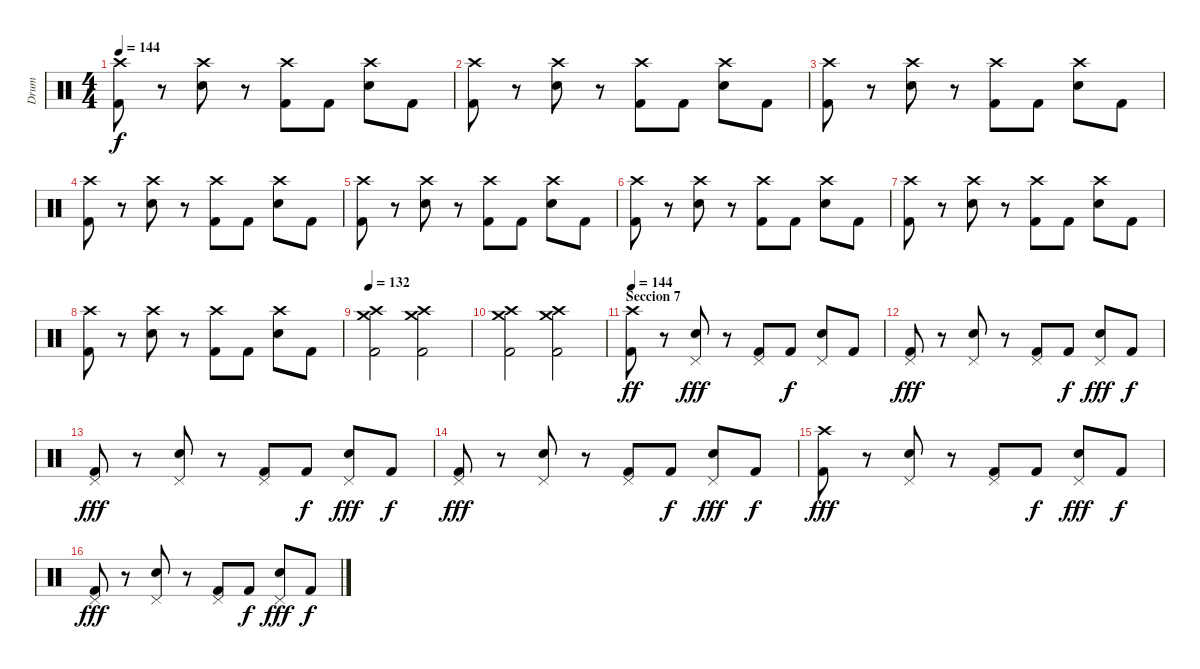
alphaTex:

\track ("Drum" "Drum") {instrument percussion}
\staff {score}
\articulation defaults
\ts (4 4)
\tempo 144
\clef neutral
\ks c
("Crash high (hit)" "Kick (hit) 2").8{dy f} r.8 ("Crash high (hit)" "Electric Snare (hit)").8 r.8 ("Crash high (hit)" "Kick (hit) 2").8 "Kick (hit) 2".8 ("Crash high (hit)" "Electric Snare (hit)").8 "Kick (hit) 2".8 |
("Crash high (hit)" "Kick (hit) 2").8 r.8 ("Crash high (hit)" "Electric Snare (hit)").8 r.8 ("Crash high (hit)" "Kick (hit) 2").8 "Kick (hit) 2".8 ("Crash high (hit)" "Electric Snare (hit)").8 "Kick (hit) 2".8 |
("Crash high (hit)" "Kick (hit) 2").8 r.8 ("Crash high (hit)" "Electric Snare (hit)").8 r.8 ("Crash high (hit)" "Kick (hit) 2").8 "Kick (hit) 2".8 ("Crash high (hit)" "Electric Snare (hit)").8 "Kick (hit) 2".8 |
("Crash high (hit)" "Kick (hit) 2").8 r.8 ("Crash high (hit)" "Electric Snare (hit)").8 r.8 ("Crash high (hit)" "Kick (hit) 2").8 "Kick (hit) 2".8 ("Crash high (hit)" "Electric Snare (hit)").8 "Kick (hit) 2".8 |
("Crash high (hit)" "Kick (hit) 2").8 r.8 ("Crash high (hit)" "Electric Snare (hit)").8 r.8 ("Crash high (hit)" "Kick (hit) 2").8 "Kick (hit) 2".8 ("Crash high (hit)" "Electric Snare (hit)").8 "Kick (hit) 2".8 |
("Crash high (hit)" "Kick (hit) 2").8 r.8 ("Crash high (hit)" "Electric Snare (hit)").8 r.8 ("Crash high (hit)" "Kick (hit) 2").8 "Kick (hit) 2".8 ("Crash high (hit)" "Electric Snare (hit)").8 "Kick (hit) 2".8 |
("Crash high (hit)" "Kick (hit) 2").8 r.8 ("Crash high (hit)" "Electric Snare (hit)").8 r.8 ("Crash high (hit)" "Kick (hit) 2").8 "Kick (hit) 2".8 ("Crash high (hit)" "Electric Snare (hit)").8 "Kick (hit) 2".8 |
("Crash high (hit)" "Kick (hit) 2").8 r.8 ("Crash high (hit)" "Electric Snare (hit)").8 r.8 ("Crash high (hit)" "Kick (hit) 2").8 "Kick (hit) 2".8 ("Crash high (hit)" "Electric Snare (hit)").8 "Kick (hit) 2".8 |
\tempo 132
("Crash high (hit)" "Crash medium (hit)" "Kick (hit) 2").2 ("Crash high (hit)" "Crash medium (hit)" "Kick (hit) 2").2 |
("Crash high (hit)" "Crash medium (hit)" "Kick (hit) 2").2 ("Crash high (hit)" "Crash medium (hit)" "Kick (hit) 2").2 |
\section ("" "Seccion 7")
\tempo 144
("Crash high (hit)" "Kick (hit) 2").8{dy ff} r.8 ("Pedal Hi-Hat (hit)" "Electric Snare (hit)").8{dy fff} r.8 ("Pedal Hi-Hat (hit)" "Kick (hit) 2").8 "Kick (hit) 2".8{dy f} ("Pedal Hi-Hat (hit)" "Electric Snare (hit)").8 "Kick (hit) 2".8 |
("Pedal Hi-Hat (hit)" "Kick (hit) 2").8{dy fff} r.8 ("Pedal Hi-Hat (hit)" "Electric Snare (hit)").8 r.8 ("Pedal Hi-Hat (hit)" "Kick (hit) 2").8 "Kick (hit) 2".8{dy f} ("Pedal Hi-Hat (hit)" "Electric Snare (hit)").8{dy fff} "Kick (hit) 2".8{dy f} |
("Pedal Hi-Hat (hit)" "Kick (hit) 2").8{dy fff} r.8 ("Pedal Hi-Hat (hit)" "Electric Snare (hit)").8 r.8 ("Pedal Hi-Hat (hit)" "Kick (hit) 2").8 "Kick (hit) 2".8{dy f} ("Pedal Hi-Hat (hit)" "Electric Snare (hit)").8{dy fff} "Kick (hit) 2".8{dy f} |
("Pedal Hi-Hat (hit)" "Kick (hit) 2").8{dy fff} r.8 ("Pedal Hi-Hat (hit)" "Electric Snare (hit)").8 r.8 ("Pedal Hi-Hat (hit)" "Kick (hit) 2").8 "Kick (hit) 2".8{dy f} ("Pedal Hi-Hat (hit)" "Electric Snare (hit)").8{dy fff} "Kick (hit) 2".8{dy f} |
("Crash high (hit)" "Kick (hit) 2").8{dy fff} r.8 ("Pedal Hi-Hat (hit)" "Electric Snare (hit)").8 r.8 ("Pedal Hi-Hat (hit)" "Kick (hit) 2").8 "Kick (hit) 2".8{dy f} ("Pedal Hi-Hat (hit)" "Electric Snare (hit)").8{dy fff} "Kick (hit) 2".8{dy f} |
("Pedal Hi-Hat (hit)" "Kick (hit) 2").8{dy fff} r.8 ("Pedal Hi-Hat (hit)" "Electric Snare (hit)").8 r.8 ("Pedal Hi-Hat (hit)" "Kick (hit) 2").8 "Kick (hit) 2".8{dy f} ("Pedal Hi-Hat (hit)" "Electric Snare (hit)").8{dy fff} "Kick (hit) 2".8{dy f}
